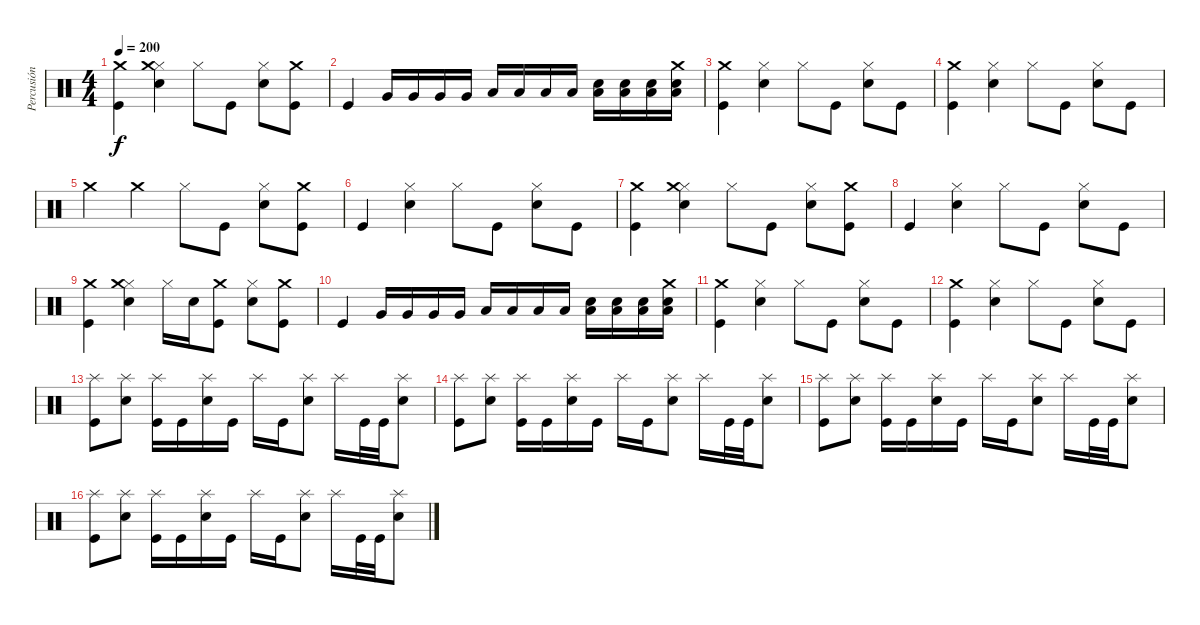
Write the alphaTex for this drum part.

\track ("Percusión" "Percusión") {instrument percussion}
\staff {score}
\articulation defaults
\ts (4 4)
\tempo 200
\clef neutral
\ks c
("Kick (hit)" "Crash medium (hit)").4{dy f} ("Snare (hit) 2" "Hi-Hat (closed)" "Crash medium (hit)").4 "Hi-Hat (closed)".8 "Kick (hit)".8 ("Snare (hit) 2" "Hi-Hat (closed)").8 ("Kick (hit)" "Crash medium (hit)").8 |
"Kick (hit)".4 "Very Low Tom (hit)".16 "Very Low Tom (hit)".16 "Very Low Tom (hit)".16 "Very Low Tom (hit)".16 "Low Tom (hit)".16 "Low Tom (hit)".16 "Low Tom (hit)".16 "Low Tom (hit)".16 ("Electric Snare (hit)" "Low Tom (hit)").16 ("Electric Snare (hit)" "Low Tom (hit)").16 ("Electric Snare (hit)" "Low Tom (hit)").16 ("Electric Snare (hit)" "Low Tom (hit)" "Crash medium (hit)").16 |
("Kick (hit)" "Crash medium (hit)").4 ("Snare (hit) 2" "Hi-Hat (closed)").4 "Hi-Hat (closed)".8 "Kick (hit)".8 ("Snare (hit) 2" "Hi-Hat (closed)").8 "Kick (hit)".8 |
("Kick (hit)" "Crash medium (hit)").4 ("Snare (hit) 2" "Hi-Hat (closed)").4 "Hi-Hat (closed)".8 "Kick (hit)".8 ("Snare (hit) 2" "Hi-Hat (closed)").8 "Kick (hit)".8 |
"Crash medium (hit)".4 "Crash medium (hit)".4 "Hi-Hat (closed)".8 "Kick (hit)".8 ("Snare (hit) 2" "Hi-Hat (closed)").8 ("Kick (hit)" "Crash medium (hit)").8 |
"Kick (hit)".4 ("Snare (hit) 2" "Hi-Hat (closed)").4 "Hi-Hat (closed)".8 "Kick (hit)".8 ("Snare (hit) 2" "Hi-Hat (closed)").8 "Kick (hit)".8 |
("Kick (hit)" "Crash medium (hit)").4 ("Snare (hit) 2" "Hi-Hat (closed)" "Crash medium (hit)").4 "Hi-Hat (closed)".8 "Kick (hit)".8 ("Snare (hit) 2" "Hi-Hat (closed)").8 ("Kick (hit)" "Crash medium (hit)").8 |
"Kick (hit)".4 ("Snare (hit) 2" "Hi-Hat (closed)").4 "Hi-Hat (closed)".8 "Kick (hit)".8 ("Snare (hit) 2" "Hi-Hat (closed)").8 "Kick (hit)".8 |
("Kick (hit)" "Crash medium (hit)").4 ("Snare (hit) 2" "Hi-Hat (closed)" "Crash medium (hit)").4 "Hi-Hat (closed)".16 "Snare (hit) 2".16 ("Kick (hit)" "Crash medium (hit)").8 ("Snare (hit) 2" "Hi-Hat (closed)").8 ("Kick (hit)" "Crash medium (hit)").8 |
"Kick (hit)".4 "Very Low Tom (hit)".16 "Very Low Tom (hit)".16 "Very Low Tom (hit)".16 "Very Low Tom (hit)".16 "Low Tom (hit)".16 "Low Tom (hit)".16 "Low Tom (hit)".16 "Low Tom (hit)".16 ("Electric Snare (hit)" "Low Tom (hit)").16 ("Electric Snare (hit)" "Low Tom (hit)").16 ("Electric Snare (hit)" "Low Tom (hit)").16 ("Electric Snare (hit)" "Low Tom (hit)" "Crash medium (hit)").16 |
("Kick (hit)" "Crash medium (hit)").4 ("Snare (hit) 2" "Hi-Hat (closed)").4 "Hi-Hat (closed)".8 "Kick (hit)".8 ("Snare (hit) 2" "Hi-Hat (closed)").8 "Kick (hit)".8 |
("Kick (hit)" "Crash medium (hit)").4 ("Snare (hit) 2" "Hi-Hat (closed)").4 "Hi-Hat (closed)".8 "Kick (hit)".8 ("Snare (hit) 2" "Hi-Hat (closed)").8 "Kick (hit)".8 |
("Splash (hit)" "Kick (hit)").8 ("Splash (hit)" "Electric Snare (hit)").8 ("Splash (hit)" "Kick (hit)").16 "Kick (hit)".16 ("Splash (hit)" "Electric Snare (hit)").16 "Kick (hit)".16 "Splash (hit)".16 "Kick (hit)".16 ("Splash (hit)" "Electric Snare (hit)").8 "Splash (hit)".16 "Kick (hit)".32 "Kick (hit)".32 ("Splash (hit)" "Electric Snare (hit)").8 |
("Splash (hit)" "Kick (hit)").8 ("Splash (hit)" "Electric Snare (hit)").8 ("Splash (hit)" "Kick (hit)").16 "Kick (hit)".16 ("Splash (hit)" "Electric Snare (hit)").16 "Kick (hit)".16 "Splash (hit)".16 "Kick (hit)".16 ("Splash (hit)" "Electric Snare (hit)").8 "Splash (hit)".16 "Kick (hit)".32 "Kick (hit)".32 ("Splash (hit)" "Electric Snare (hit)").8 |
("Splash (hit)" "Kick (hit)").8 ("Splash (hit)" "Electric Snare (hit)").8 ("Splash (hit)" "Kick (hit)").16 "Kick (hit)".16 ("Splash (hit)" "Electric Snare (hit)").16 "Kick (hit)".16 "Splash (hit)".16 "Kick (hit)".16 ("Splash (hit)" "Electric Snare (hit)").8 "Splash (hit)".16 "Kick (hit)".32 "Kick (hit)".32 ("Splash (hit)" "Electric Snare (hit)").8 |
("Splash (hit)" "Kick (hit)").8 ("Splash (hit)" "Electric Snare (hit)").8 ("Splash (hit)" "Kick (hit)").16 "Kick (hit)".16 ("Splash (hit)" "Electric Snare (hit)").16 "Kick (hit)".16 "Splash (hit)".16 "Kick (hit)".16 ("Splash (hit)" "Electric Snare (hit)").8 "Splash (hit)".16 "Kick (hit)".32 "Kick (hit)".32 ("Splash (hit)" "Electric Snare (hit)").8
